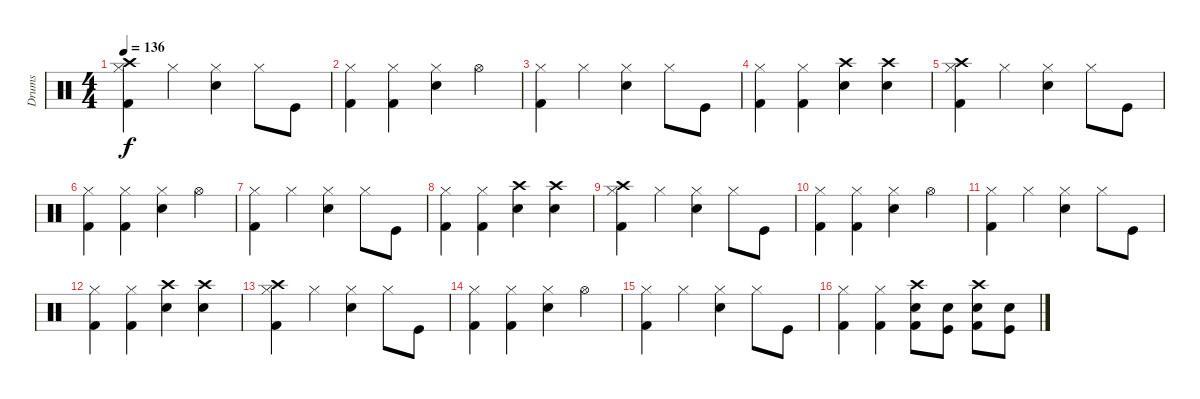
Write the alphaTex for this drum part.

\track ("Drums" "Drums") {instrument percussion}
\staff {score}
\articulation defaults
\ts (4 4)
\tempo 136
\clef neutral
\ks c
("Hi-Hat (closed)" "Crash high (hit)" "Kick (hit) 2").4{dy f} "Hi-Hat (closed)".4 ("Hi-Hat (closed)" "Snare (hit) 2").4 "Hi-Hat (closed)".8 "Kick (hit)".8 |
("Hi-Hat (closed)" "Kick (hit) 2").4 ("Hi-Hat (closed)" "Kick (hit) 2").4 ("Hi-Hat (closed)" "Snare (hit) 2").4 "Hi-Hat (open)".4 |
("Hi-Hat (closed)" "Kick (hit) 2").4 "Hi-Hat (closed)".4 ("Hi-Hat (closed)" "Snare (hit) 2").4 "Hi-Hat (closed)".8 "Kick (hit)".8 |
("Hi-Hat (closed)" "Kick (hit) 2").4 ("Hi-Hat (closed)" "Kick (hit) 2").4 ("Crash high (hit)" "Snare (hit) 2").4 ("Crash high (hit)" "Snare (hit) 2").4 |
("Hi-Hat (closed)" "Crash high (hit)" "Kick (hit) 2").4 "Hi-Hat (closed)".4 ("Hi-Hat (closed)" "Snare (hit) 2").4 "Hi-Hat (closed)".8 "Kick (hit)".8 |
("Hi-Hat (closed)" "Kick (hit) 2").4 ("Hi-Hat (closed)" "Kick (hit) 2").4 ("Hi-Hat (closed)" "Snare (hit) 2").4 "Hi-Hat (open)".4 |
("Hi-Hat (closed)" "Kick (hit) 2").4 "Hi-Hat (closed)".4 ("Hi-Hat (closed)" "Snare (hit) 2").4 "Hi-Hat (closed)".8 "Kick (hit)".8 |
("Hi-Hat (closed)" "Kick (hit) 2").4 ("Hi-Hat (closed)" "Kick (hit) 2").4 ("Crash high (hit)" "Snare (hit) 2").4 ("Crash high (hit)" "Snare (hit) 2").4 |
("Hi-Hat (closed)" "Crash high (hit)" "Kick (hit) 2").4 "Hi-Hat (closed)".4 ("Hi-Hat (closed)" "Snare (hit) 2").4 "Hi-Hat (closed)".8 "Kick (hit)".8 |
("Hi-Hat (closed)" "Kick (hit) 2").4 ("Hi-Hat (closed)" "Kick (hit) 2").4 ("Hi-Hat (closed)" "Snare (hit) 2").4 "Hi-Hat (open)".4 |
("Hi-Hat (closed)" "Kick (hit) 2").4 "Hi-Hat (closed)".4 ("Hi-Hat (closed)" "Snare (hit) 2").4 "Hi-Hat (closed)".8 "Kick (hit)".8 |
("Hi-Hat (closed)" "Kick (hit) 2").4 ("Hi-Hat (closed)" "Kick (hit) 2").4 ("Crash high (hit)" "Snare (hit) 2").4 ("Crash high (hit)" "Snare (hit) 2").4 |
("Hi-Hat (closed)" "Crash high (hit)" "Kick (hit) 2").4 "Hi-Hat (closed)".4 ("Hi-Hat (closed)" "Snare (hit) 2").4 "Hi-Hat (closed)".8 "Kick (hit)".8 |
("Hi-Hat (closed)" "Kick (hit) 2").4 ("Hi-Hat (closed)" "Kick (hit) 2").4 ("Hi-Hat (closed)" "Snare (hit) 2").4 "Hi-Hat (open)".4 |
("Hi-Hat (closed)" "Kick (hit) 2").4 "Hi-Hat (closed)".4 ("Hi-Hat (closed)" "Snare (hit) 2").4 "Hi-Hat (closed)".8 "Kick (hit)".8 |
("Hi-Hat (closed)" "Kick (hit) 2").4 ("Hi-Hat (closed)" "Kick (hit) 2").4 ("Crash high (hit)" "Snare (hit) 2" "Kick (hit) 2").8 ("Snare (hit) 2" "Kick (hit)").8 ("Crash high (hit)" "Snare (hit) 2" "Kick (hit) 2").8 ("Snare (hit) 2" "Kick (hit)").8
